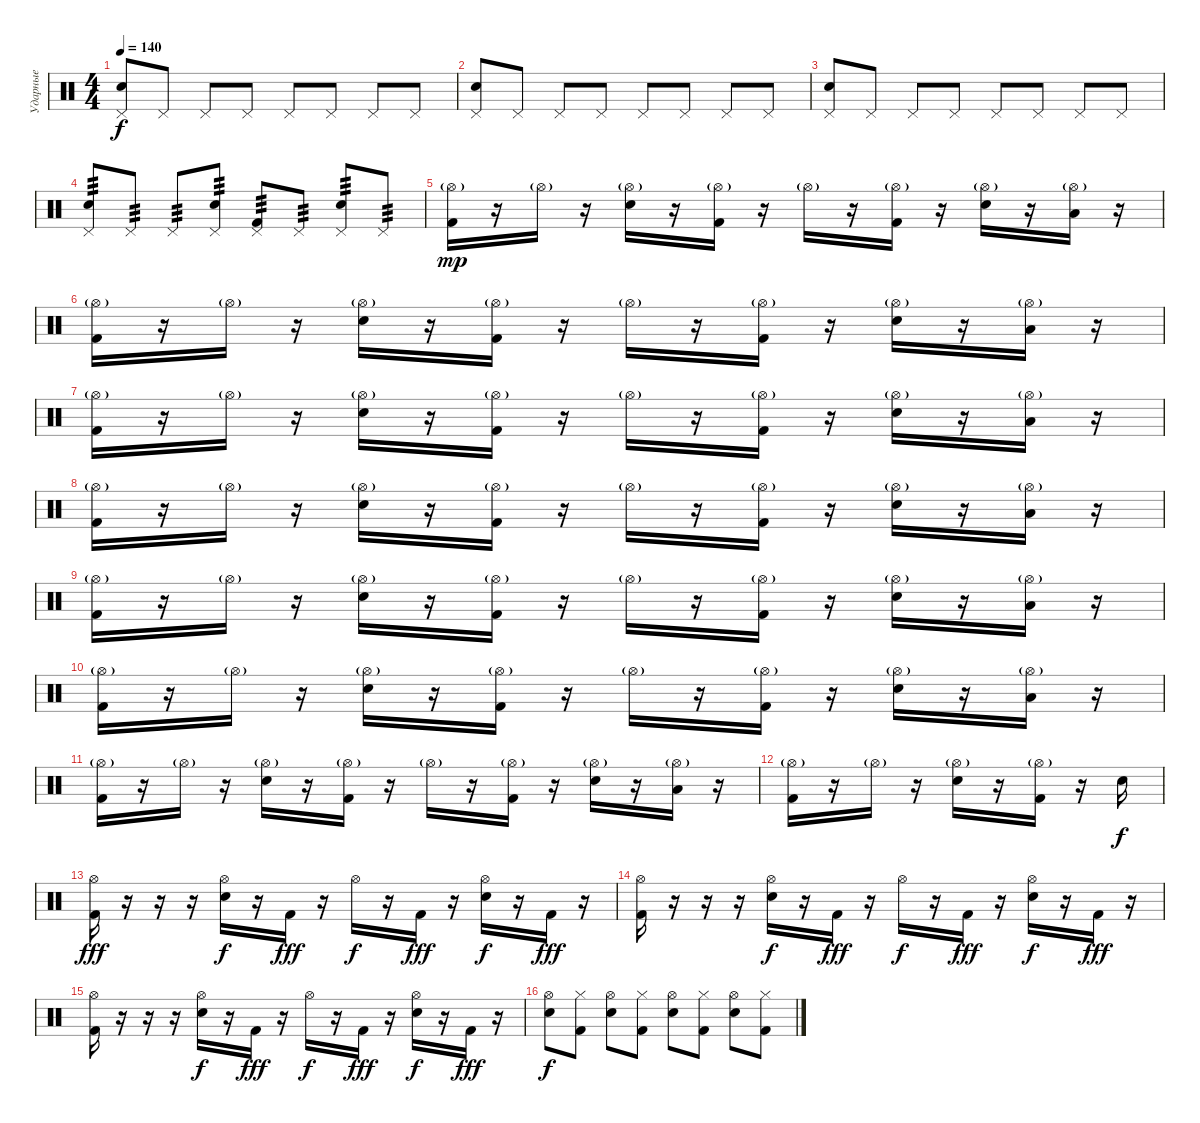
\track ("Ударные" "Ударные") {instrument percussion}
\staff {score}
\articulation defaults
\ts (4 4)
\tempo 140
\clef neutral
\ks c
("Snare (hit) 2" "Pedal Hi-Hat (hit)").8{dy f} "Pedal Hi-Hat (hit)".8 "Pedal Hi-Hat (hit)".8 "Pedal Hi-Hat (hit)".8 "Pedal Hi-Hat (hit)".8 "Pedal Hi-Hat (hit)".8 "Pedal Hi-Hat (hit)".8 "Pedal Hi-Hat (hit)".8 |
("Snare (hit) 2" "Pedal Hi-Hat (hit)").8 "Pedal Hi-Hat (hit)".8 "Pedal Hi-Hat (hit)".8 "Pedal Hi-Hat (hit)".8 "Pedal Hi-Hat (hit)".8 "Pedal Hi-Hat (hit)".8 "Pedal Hi-Hat (hit)".8 "Pedal Hi-Hat (hit)".8 |
("Snare (hit) 2" "Pedal Hi-Hat (hit)").8 "Pedal Hi-Hat (hit)".8 "Pedal Hi-Hat (hit)".8 "Pedal Hi-Hat (hit)".8 "Pedal Hi-Hat (hit)".8 "Pedal Hi-Hat (hit)".8 "Pedal Hi-Hat (hit)".8 "Pedal Hi-Hat (hit)".8 |
("Snare (hit) 2" "Pedal Hi-Hat (hit)").8{tp 3} "Pedal Hi-Hat (hit)".8{tp 3} "Pedal Hi-Hat (hit)".8{tp 3} ("Snare (hit) 2" "Pedal Hi-Hat (hit)").8{tp 3} ("Kick (hit) 2" "Pedal Hi-Hat (hit)").8{tp 3} "Pedal Hi-Hat (hit)".8{tp 3} ("Snare (hit) 2" "Pedal Hi-Hat (hit)").8{tp 3} "Pedal Hi-Hat (hit)".8{tp 3} |
("Kick (hit) 2" "Hi-Hat (open)"{g}).16{dy mp} r.16 "Hi-Hat (open)"{g}.16 r.16 ("Snare (hit) 2" "Hi-Hat (open)"{g}).16 r.16 ("Kick (hit) 2" "Hi-Hat (open)"{g}).16 r.16 "Hi-Hat (open)"{g}.16 r.16 ("Kick (hit) 2" "Hi-Hat (open)"{g}).16 r.16 ("Snare (hit) 2" "Hi-Hat (open)"{g}).16 r.16 ("Low Tom (hit)" "Hi-Hat (open)"{g}).16 r.16 |
("Kick (hit) 2" "Hi-Hat (open)"{g}).16 r.16 "Hi-Hat (open)"{g}.16 r.16 ("Snare (hit) 2" "Hi-Hat (open)"{g}).16 r.16 ("Kick (hit) 2" "Hi-Hat (open)"{g}).16 r.16 "Hi-Hat (open)"{g}.16 r.16 ("Kick (hit) 2" "Hi-Hat (open)"{g}).16 r.16 ("Snare (hit) 2" "Hi-Hat (open)"{g}).16 r.16 ("Low Tom (hit)" "Hi-Hat (open)"{g}).16 r.16 |
("Kick (hit) 2" "Hi-Hat (open)"{g}).16 r.16 "Hi-Hat (open)"{g}.16 r.16 ("Snare (hit) 2" "Hi-Hat (open)"{g}).16 r.16 ("Kick (hit) 2" "Hi-Hat (open)"{g}).16 r.16 "Hi-Hat (open)"{g}.16 r.16 ("Kick (hit) 2" "Hi-Hat (open)"{g}).16 r.16 ("Snare (hit) 2" "Hi-Hat (open)"{g}).16 r.16 ("Low Tom (hit)" "Hi-Hat (open)"{g}).16 r.16 |
("Kick (hit) 2" "Hi-Hat (open)"{g}).16 r.16 "Hi-Hat (open)"{g}.16 r.16 ("Snare (hit) 2" "Hi-Hat (open)"{g}).16 r.16 ("Kick (hit) 2" "Hi-Hat (open)"{g}).16 r.16 "Hi-Hat (open)"{g}.16 r.16 ("Kick (hit) 2" "Hi-Hat (open)"{g}).16 r.16 ("Snare (hit) 2" "Hi-Hat (open)"{g}).16 r.16 ("Low Tom (hit)" "Hi-Hat (open)"{g}).16 r.16 |
("Kick (hit) 2" "Hi-Hat (open)"{g}).16 r.16 "Hi-Hat (open)"{g}.16 r.16 ("Snare (hit) 2" "Hi-Hat (open)"{g}).16 r.16 ("Kick (hit) 2" "Hi-Hat (open)"{g}).16 r.16 "Hi-Hat (open)"{g}.16 r.16 ("Kick (hit) 2" "Hi-Hat (open)"{g}).16 r.16 ("Snare (hit) 2" "Hi-Hat (open)"{g}).16 r.16 ("Low Tom (hit)" "Hi-Hat (open)"{g}).16 r.16 |
("Kick (hit) 2" "Hi-Hat (open)"{g}).16 r.16 "Hi-Hat (open)"{g}.16 r.16 ("Snare (hit) 2" "Hi-Hat (open)"{g}).16 r.16 ("Kick (hit) 2" "Hi-Hat (open)"{g}).16 r.16 "Hi-Hat (open)"{g}.16 r.16 ("Kick (hit) 2" "Hi-Hat (open)"{g}).16 r.16 ("Snare (hit) 2" "Hi-Hat (open)"{g}).16 r.16 ("Low Tom (hit)" "Hi-Hat (open)"{g}).16 r.16 |
("Kick (hit) 2" "Hi-Hat (open)"{g}).16 r.16 "Hi-Hat (open)"{g}.16 r.16 ("Snare (hit) 2" "Hi-Hat (open)"{g}).16 r.16 ("Kick (hit) 2" "Hi-Hat (open)"{g}).16 r.16 "Hi-Hat (open)"{g}.16 r.16 ("Kick (hit) 2" "Hi-Hat (open)"{g}).16 r.16 ("Snare (hit) 2" "Hi-Hat (open)"{g}).16 r.16 ("Low Tom (hit)" "Hi-Hat (open)"{g}).16 r.16 |
("Kick (hit) 2" "Hi-Hat (open)"{g}).16 r.16 "Hi-Hat (open)"{g}.16 r.16 ("Snare (hit) 2" "Hi-Hat (open)"{g}).16 r.16 ("Kick (hit) 2" "Hi-Hat (open)"{g}).16 r.16 "Snare (hit) 2".16{dy f} |
("Kick (hit) 2" "Hi-Hat (open)").16{dy fff} r.16 r.16 r.16 ("Snare (hit) 2" "Hi-Hat (open)").16{dy f} r.16 "Kick (hit) 2".16{dy fff} r.16 "Hi-Hat (open)".16{dy f} r.16 "Kick (hit) 2".16{dy fff} r.16 ("Snare (hit) 2" "Hi-Hat (open)").16{dy f} r.16 "Kick (hit) 2".16{dy fff} r.16 |
("Kick (hit) 2" "Hi-Hat (open)").16 r.16 r.16 r.16 ("Snare (hit) 2" "Hi-Hat (open)").16{dy f} r.16 "Kick (hit) 2".16{dy fff} r.16 "Hi-Hat (open)".16{dy f} r.16 "Kick (hit) 2".16{dy fff} r.16 ("Snare (hit) 2" "Hi-Hat (open)").16{dy f} r.16 "Kick (hit) 2".16{dy fff} r.16 |
("Kick (hit) 2" "Hi-Hat (open)").16 r.16 r.16 r.16 ("Snare (hit) 2" "Hi-Hat (open)").16{dy f} r.16 "Kick (hit) 2".16{dy fff} r.16 "Hi-Hat (open)".16{dy f} r.16 "Kick (hit) 2".16{dy fff} r.16 ("Snare (hit) 2" "Hi-Hat (open)").16{dy f} r.16 "Kick (hit) 2".16{dy fff} r.16 |
("Snare (hit) 2" "Hi-Hat (open)").8{dy f} ("Kick (hit) 2" "Hi-Hat (closed)").8 ("Snare (hit) 2" "Hi-Hat (open)").8 ("Kick (hit) 2" "Hi-Hat (closed)").8 ("Snare (hit) 2" "Hi-Hat (open)").8 ("Kick (hit) 2" "Hi-Hat (closed)").8 ("Snare (hit) 2" "Hi-Hat (open)").8 ("Kick (hit) 2" "Hi-Hat (closed)").8
